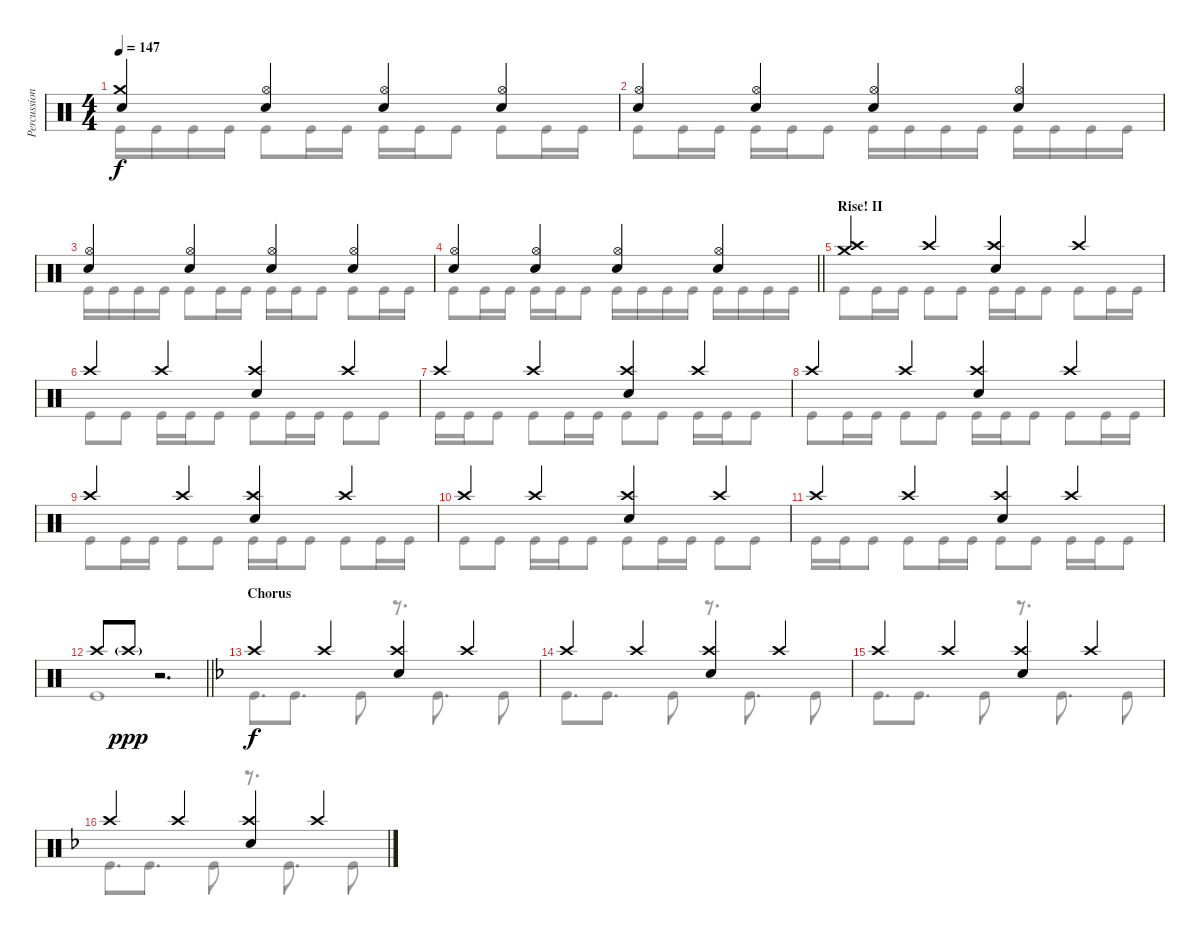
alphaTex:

\track ("Percussion" "Percussion") {instrument percussion}
\staff {score}
\articulation defaults
\voice
\ts (4 4)
\tempo 147
\clef neutral
\ks aminor
("Crash medium (hit)" "Electric Snare (hit)").4{dy f} ("Hi-Hat (open)" "Electric Snare (hit)").4 ("Hi-Hat (open)" "Electric Snare (hit)").4 ("Hi-Hat (open)" "Electric Snare (hit)").4 |
("Hi-Hat (open)" "Electric Snare (hit)").4 ("Hi-Hat (open)" "Electric Snare (hit)").4 ("Hi-Hat (open)" "Electric Snare (hit)").4 ("Hi-Hat (open)" "Electric Snare (hit)").4 |
("Hi-Hat (open)" "Electric Snare (hit)").4 ("Hi-Hat (open)" "Electric Snare (hit)").4 ("Hi-Hat (open)" "Electric Snare (hit)").4 ("Hi-Hat (open)" "Electric Snare (hit)").4 |
\barLineRight lightlight
("Hi-Hat (open)" "Electric Snare (hit)").4 ("Hi-Hat (open)" "Electric Snare (hit)").4 ("Hi-Hat (open)" "Electric Snare (hit)").4 ("Hi-Hat (open)" "Electric Snare (hit)").4 |
\section ("" "Rise! II")
("Crash medium (hit)" "Crash high (hit)").4 "Crash high (hit)".4 ("Crash high (hit)" "Electric Snare (hit)").4 "Crash high (hit)".4 |
"Crash high (hit)".4 "Crash high (hit)".4 ("Crash high (hit)" "Electric Snare (hit)").4 "Crash high (hit)".4 |
"Crash high (hit)".4 "Crash high (hit)".4 ("Crash high (hit)" "Electric Snare (hit)").4 "Crash high (hit)".4 |
"Crash high (hit)".4 "Crash high (hit)".4 ("Crash high (hit)" "Electric Snare (hit)").4 "Crash high (hit)".4 |
"Crash high (hit)".4 "Crash high (hit)".4 ("Crash high (hit)" "Electric Snare (hit)").4 "Crash high (hit)".4 |
"Crash high (hit)".4 "Crash high (hit)".4 ("Crash high (hit)" "Electric Snare (hit)").4 "Crash high (hit)".4 |
"Crash high (hit)".4 "Crash high (hit)".4 ("Crash high (hit)" "Electric Snare (hit)").4 "Crash high (hit)".4 |
\barLineRight lightlight "Crash high (hit)".8 "Crash high (hit)"{g}.8{dy ppp}
r.2{d} |
\section ("" "Chorus")
\ks dminor "Crash high (hit)".4{dy f} "Crash high (hit)".4
("Crash high (hit)" "Electric Snare (hit)").4 "Crash high (hit)".4 |
"Crash high (hit)".4 "Crash high (hit)".4 ("Crash high (hit)" "Electric Snare (hit)").4 "Crash high (hit)".4 |
"Crash high (hit)".4 "Crash high (hit)".4 ("Crash high (hit)" "Electric Snare (hit)").4 "Crash high (hit)".4 |
"Crash high (hit)".4 "Crash high (hit)".4 ("Crash high (hit)" "Electric Snare (hit)").4 "Crash high (hit)".4
\voice
\clef neutral
\ottava regular
\simile none
\ks aminor "Kick (hit)".16{dy f} "Kick (hit)".16 "Kick (hit)".16 "Kick (hit)".16 "Kick (hit)".8 "Kick (hit)".16 "Kick (hit)".16 "Kick (hit)".16 "Kick (hit)".16 "Kick (hit)".8 "Kick (hit)".8 "Kick (hit)".16 "Kick (hit)".16
|
"Kick (hit)".8 "Kick (hit)".16 "Kick (hit)".16 "Kick (hit)".16 "Kick (hit)".16 "Kick (hit)".8 "Kick (hit)".16 "Kick (hit)".16 "Kick (hit)".16 "Kick (hit)".16 "Kick (hit)".16 "Kick (hit)".16 "Kick (hit)".16 "Kick (hit)".16 |
"Kick (hit)".16 "Kick (hit)".16 "Kick (hit)".16 "Kick (hit)".16 "Kick (hit)".8 "Kick (hit)".16 "Kick (hit)".16 "Kick (hit)".16 "Kick (hit)".16 "Kick (hit)".8 "Kick (hit)".8 "Kick (hit)".16 "Kick (hit)".16 |
\barLineRight lightlight "Kick (hit)".8 "Kick (hit)".16 "Kick (hit)".16 "Kick (hit)".16 "Kick (hit)".16 "Kick (hit)".8 "Kick (hit)".16 "Kick (hit)".16 "Kick (hit)".16 "Kick (hit)".16 "Kick (hit)".16 "Kick (hit)".16 "Kick (hit)".16 "Kick (hit)".16
|
"Kick (hit)".8 "Kick (hit)".16 "Kick (hit)".16 "Kick (hit)".8 "Kick (hit)".8 "Kick (hit)".16 "Kick (hit)".16 "Kick (hit)".8 "Kick (hit)".8 "Kick (hit)".16 "Kick (hit)".16 |
"Kick (hit)".8 "Kick (hit)".8 "Kick (hit)".16 "Kick (hit)".16 "Kick (hit)".8 "Kick (hit)".8 "Kick (hit)".16 "Kick (hit)".16 "Kick (hit)".8 "Kick (hit)".8 |
"Kick (hit)".16 "Kick (hit)".16 "Kick (hit)".8 "Kick (hit)".8 "Kick (hit)".16 "Kick (hit)".16 "Kick (hit)".8 "Kick (hit)".8 "Kick (hit)".16 "Kick (hit)".16 "Kick (hit)".8 |
"Kick (hit)".8 "Kick (hit)".16 "Kick (hit)".16 "Kick (hit)".8 "Kick (hit)".8 "Kick (hit)".16 "Kick (hit)".16 "Kick (hit)".8 "Kick (hit)".8 "Kick (hit)".16 "Kick (hit)".16 |
"Kick (hit)".8 "Kick (hit)".16 "Kick (hit)".16 "Kick (hit)".8 "Kick (hit)".8 "Kick (hit)".16 "Kick (hit)".16 "Kick (hit)".8 "Kick (hit)".8 "Kick (hit)".16 "Kick (hit)".16 |
"Kick (hit)".8 "Kick (hit)".8 "Kick (hit)".16 "Kick (hit)".16 "Kick (hit)".8 "Kick (hit)".8 "Kick (hit)".16 "Kick (hit)".16 "Kick (hit)".8 "Kick (hit)".8 |
"Kick (hit)".16 "Kick (hit)".16 "Kick (hit)".8 "Kick (hit)".8 "Kick (hit)".16 "Kick (hit)".16 "Kick (hit)".8 "Kick (hit)".8 "Kick (hit)".16 "Kick (hit)".16 "Kick (hit)".8 |
\barLineRight lightlight "Kick (hit)".1
|
\ks dminor "Kick (hit)".8{d} "Kick (hit)".8{d} "Kick (hit)".8
r.8{d} "Kick (hit)".8{d} "Kick (hit)".8 |
"Kick (hit)".8{d} "Kick (hit)".8{d} "Kick (hit)".8 r.8{d} "Kick (hit)".8{d} "Kick (hit)".8 |
"Kick (hit)".8{d} "Kick (hit)".8{d} "Kick (hit)".8 r.8{d} "Kick (hit)".8{d} "Kick (hit)".8 |
"Kick (hit)".8{d} "Kick (hit)".8{d} "Kick (hit)".8 r.8{d} "Kick (hit)".8{d} "Kick (hit)".8
